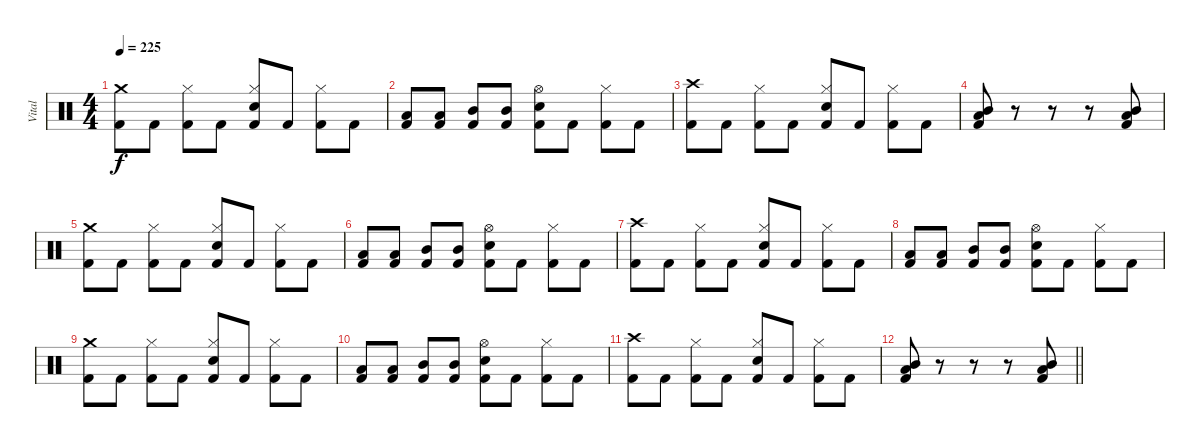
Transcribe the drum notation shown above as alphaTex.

\track ("Vital" "Vital") {instrument percussion}
\staff {score}
\articulation defaults
\ts (4 4)
\tempo 225
\clef neutral
\ks c
("Crash medium (hit)" "Kick (hit) 2").8{dy f} "Kick (hit) 2".8 ("Hi-Hat (closed)" "Kick (hit) 2").8 "Kick (hit) 2".8 ("Hi-Hat (closed)" "Snare (hit) 2" "Kick (hit) 2").8 "Kick (hit) 2".8 ("Hi-Hat (closed)" "Kick (hit) 2").8 "Kick (hit) 2".8 |
("Low Tom (hit)" "Kick (hit) 2").8 ("Low Tom (hit)" "Kick (hit) 2").8 ("Mid Tom (hit)" "Kick (hit) 2").8 ("Mid Tom (hit)" "Kick (hit) 2").8 ("Hi-Hat (open)" "Snare (hit) 2" "Kick (hit) 2").8 "Kick (hit) 2".8 ("Hi-Hat (closed)" "Kick (hit) 2").8 "Kick (hit) 2".8 |
("Crash high (hit)" "Kick (hit) 2").8 "Kick (hit) 2".8 ("Hi-Hat (closed)" "Kick (hit) 2").8 "Kick (hit) 2".8 ("Hi-Hat (closed)" "Snare (hit) 2" "Kick (hit) 2").8 "Kick (hit) 2".8 ("Hi-Hat (closed)" "Kick (hit) 2").8 "Kick (hit) 2".8 |
("Low Tom (hit)" "Mid Tom (hit)" "Kick (hit) 2").8 r.8 r.8 r.8 ("Low Tom (hit)" "Mid Tom (hit)" "Kick (hit) 2").8 |
("Crash medium (hit)" "Kick (hit) 2").8 "Kick (hit) 2".8 ("Hi-Hat (closed)" "Kick (hit) 2").8 "Kick (hit) 2".8 ("Hi-Hat (closed)" "Snare (hit) 2" "Kick (hit) 2").8 "Kick (hit) 2".8 ("Hi-Hat (closed)" "Kick (hit) 2").8 "Kick (hit) 2".8 |
("Low Tom (hit)" "Kick (hit) 2").8 ("Low Tom (hit)" "Kick (hit) 2").8 ("Mid Tom (hit)" "Kick (hit) 2").8 ("Mid Tom (hit)" "Kick (hit) 2").8 ("Hi-Hat (open)" "Snare (hit) 2" "Kick (hit) 2").8 "Kick (hit) 2".8 ("Hi-Hat (closed)" "Kick (hit) 2").8 "Kick (hit) 2".8 |
("Crash high (hit)" "Kick (hit) 2").8 "Kick (hit) 2".8 ("Hi-Hat (closed)" "Kick (hit) 2").8 "Kick (hit) 2".8 ("Hi-Hat (closed)" "Snare (hit) 2" "Kick (hit) 2").8 "Kick (hit) 2".8 ("Hi-Hat (closed)" "Kick (hit) 2").8 "Kick (hit) 2".8 |
("Low Tom (hit)" "Kick (hit) 2").8 ("Low Tom (hit)" "Kick (hit) 2").8 ("Mid Tom (hit)" "Kick (hit) 2").8 ("Mid Tom (hit)" "Kick (hit) 2").8 ("Hi-Hat (open)" "Snare (hit) 2" "Kick (hit) 2").8 "Kick (hit) 2".8 ("Hi-Hat (closed)" "Kick (hit) 2").8 "Kick (hit) 2".8 |
("Crash medium (hit)" "Kick (hit) 2").8 "Kick (hit) 2".8 ("Hi-Hat (closed)" "Kick (hit) 2").8 "Kick (hit) 2".8 ("Hi-Hat (closed)" "Snare (hit) 2" "Kick (hit) 2").8 "Kick (hit) 2".8 ("Hi-Hat (closed)" "Kick (hit) 2").8 "Kick (hit) 2".8 |
("Low Tom (hit)" "Kick (hit) 2").8 ("Low Tom (hit)" "Kick (hit) 2").8 ("Mid Tom (hit)" "Kick (hit) 2").8 ("Mid Tom (hit)" "Kick (hit) 2").8 ("Hi-Hat (open)" "Snare (hit) 2" "Kick (hit) 2").8 "Kick (hit) 2".8 ("Hi-Hat (closed)" "Kick (hit) 2").8 "Kick (hit) 2".8 |
("Crash high (hit)" "Kick (hit) 2").8 "Kick (hit) 2".8 ("Hi-Hat (closed)" "Kick (hit) 2").8 "Kick (hit) 2".8 ("Hi-Hat (closed)" "Snare (hit) 2" "Kick (hit) 2").8 "Kick (hit) 2".8 ("Hi-Hat (closed)" "Kick (hit) 2").8 "Kick (hit) 2".8 |
\barLineRight lightlight
("Low Tom (hit)" "Mid Tom (hit)" "Kick (hit) 2").8 r.8 r.8 r.8 ("Low Tom (hit)" "Mid Tom (hit)" "Kick (hit) 2").8
